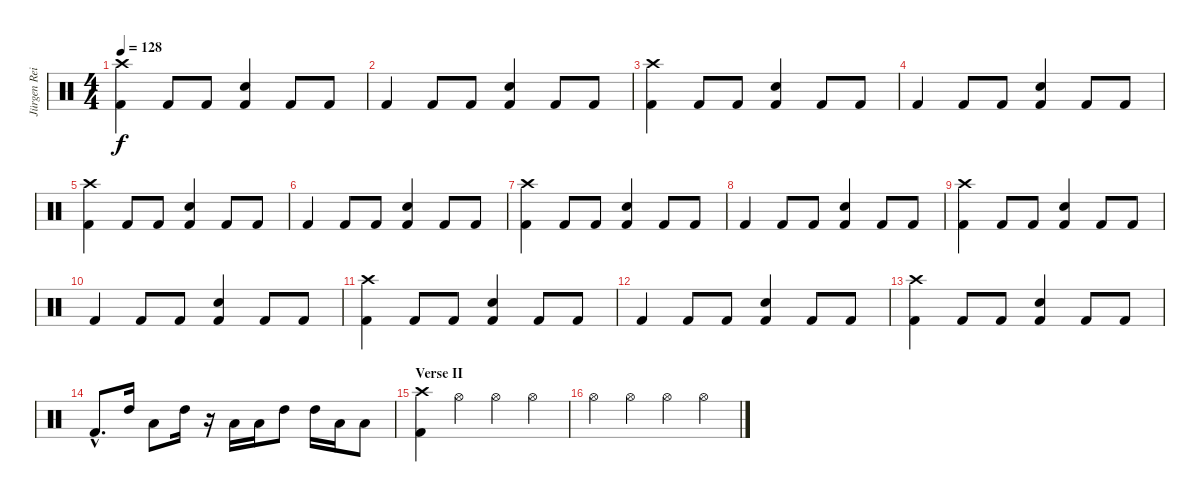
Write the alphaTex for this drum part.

\track ("Jürgen Reil [drums]" "Jürgen Rei") {instrument percussion}
\staff {score}
\articulation defaults
\ts (4 4)
\tempo 128
\clef neutral
\ks c
("Crash high (hit)" "Kick (hit) 2").4{dy f} "Kick (hit) 2".8 "Kick (hit) 2".8 ("Electric Snare (hit)" "Kick (hit) 2").4 "Kick (hit) 2".8 "Kick (hit) 2".8 |
"Kick (hit) 2".4 "Kick (hit) 2".8 "Kick (hit) 2".8 ("Electric Snare (hit)" "Kick (hit) 2").4 "Kick (hit) 2".8 "Kick (hit) 2".8 |
("Crash high (hit)" "Kick (hit) 2").4 "Kick (hit) 2".8 "Kick (hit) 2".8 ("Electric Snare (hit)" "Kick (hit) 2").4 "Kick (hit) 2".8 "Kick (hit) 2".8 |
"Kick (hit) 2".4 "Kick (hit) 2".8 "Kick (hit) 2".8 ("Electric Snare (hit)" "Kick (hit) 2").4 "Kick (hit) 2".8 "Kick (hit) 2".8 |
("Crash high (hit)" "Kick (hit) 2").4 "Kick (hit) 2".8 "Kick (hit) 2".8 ("Electric Snare (hit)" "Kick (hit) 2").4 "Kick (hit) 2".8 "Kick (hit) 2".8 |
"Kick (hit) 2".4 "Kick (hit) 2".8 "Kick (hit) 2".8 ("Electric Snare (hit)" "Kick (hit) 2").4 "Kick (hit) 2".8 "Kick (hit) 2".8 |
("Crash high (hit)" "Kick (hit) 2").4 "Kick (hit) 2".8 "Kick (hit) 2".8 ("Electric Snare (hit)" "Kick (hit) 2").4 "Kick (hit) 2".8 "Kick (hit) 2".8 |
"Kick (hit) 2".4 "Kick (hit) 2".8 "Kick (hit) 2".8 ("Electric Snare (hit)" "Kick (hit) 2").4 "Kick (hit) 2".8 "Kick (hit) 2".8 |
("Crash high (hit)" "Kick (hit) 2").4 "Kick (hit) 2".8 "Kick (hit) 2".8 ("Electric Snare (hit)" "Kick (hit) 2").4 "Kick (hit) 2".8 "Kick (hit) 2".8 |
"Kick (hit) 2".4 "Kick (hit) 2".8 "Kick (hit) 2".8 ("Electric Snare (hit)" "Kick (hit) 2").4 "Kick (hit) 2".8 "Kick (hit) 2".8 |
("Crash high (hit)" "Kick (hit) 2").4 "Kick (hit) 2".8 "Kick (hit) 2".8 ("Electric Snare (hit)" "Kick (hit) 2").4 "Kick (hit) 2".8 "Kick (hit) 2".8 |
"Kick (hit) 2".4 "Kick (hit) 2".8 "Kick (hit) 2".8 ("Electric Snare (hit)" "Kick (hit) 2").4 "Kick (hit) 2".8 "Kick (hit) 2".8 |
("Crash high (hit)" "Kick (hit) 2").4 "Kick (hit) 2".8 "Kick (hit) 2".8 ("Electric Snare (hit)" "Kick (hit) 2").4 "Kick (hit) 2".8 "Kick (hit) 2".8 |
"Kick (hit) 2"{hac}.8{d} "High Tom (hit)".16 "Low Tom (hit)".8 "High Tom (hit)".16 r.16 "Low Tom (hit)".16 "Low Tom (hit)".16 "High Tom (hit)".8 "High Tom (hit)".16 "Low Tom (hit)".16 "Low Tom (hit)".8 |
\section ("" "Verse II")
("Crash high (hit)" "Kick (hit) 2").4 "Hi-Hat (open)".4 "Hi-Hat (open)".4 "Hi-Hat (open)".4 |
"Hi-Hat (open)".4 "Hi-Hat (open)".4 "Hi-Hat (open)".4 "Hi-Hat (open)".4
